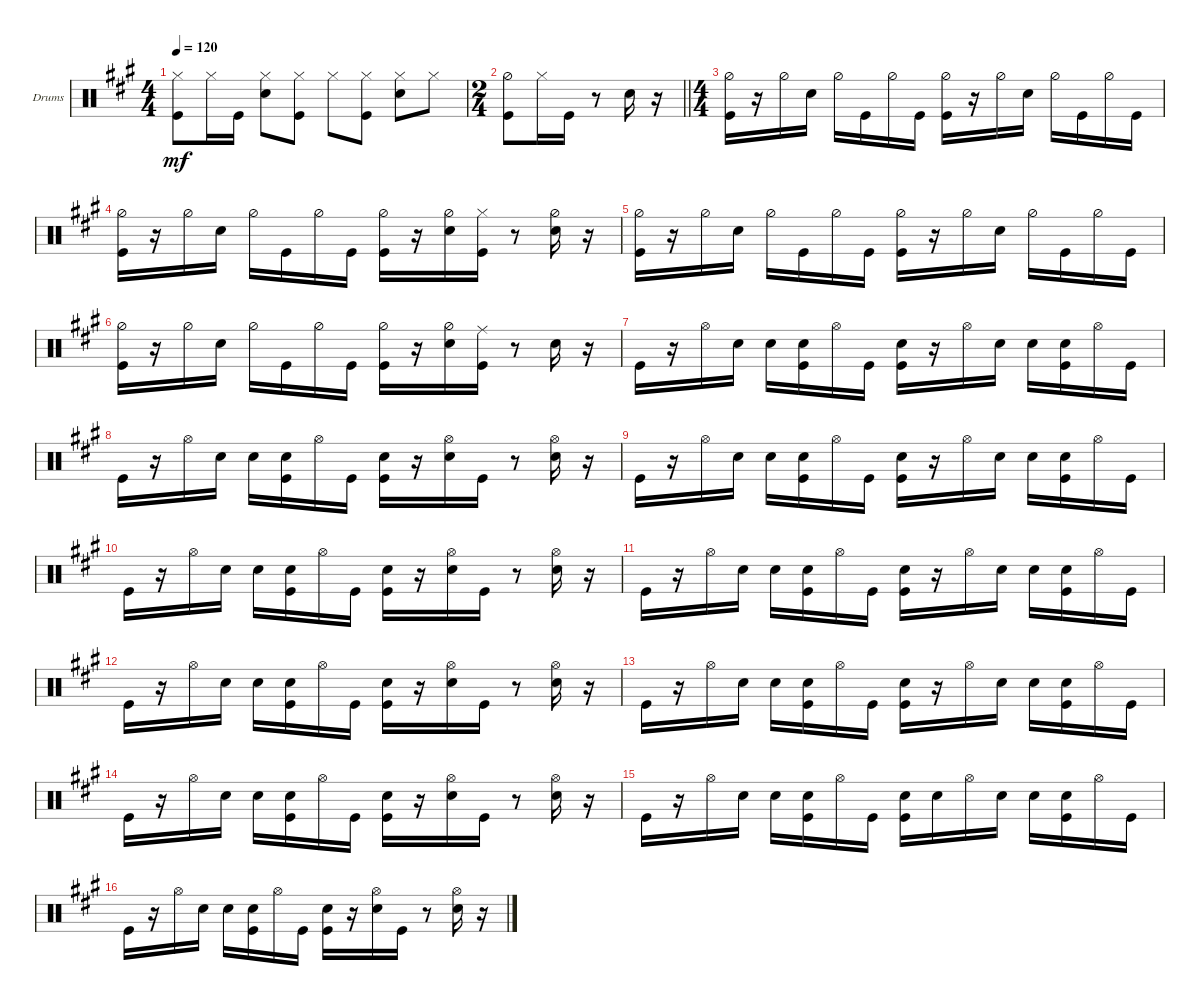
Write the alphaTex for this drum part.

\bracketExtendMode groupsimilarinstruments
\firstSystemTrackNameOrientation horizontal
\otherSystemsTrackNameOrientation horizontal
\track ("Drumkit" "Drums") {instrument percussion}
\staff {score}
\articulation defaults
\ts (4 4)
\tempo 120
\clef neutral
\ks a
("Kick (hit)" "Hi-Hat (closed)").8{dy mf} "Hi-Hat (closed)".16 "Kick (hit)".16 ("Snare (hit) 2" "Hi-Hat (closed)").8 ("Kick (hit)" "Hi-Hat (closed)").8 "Hi-Hat (closed)".8 ("Hi-Hat (closed)" "Kick (hit)").8 ("Hi-Hat (closed)" "Snare (hit) 2").8 "Hi-Hat (closed)".8 |
\ts (2 4)
\beaming (8 2 2 2 2)
\barLineRight lightlight
("Kick (hit)" "Hi-Hat (half)").8 "Hi-Hat (closed)".16 "Kick (hit)".16 r.8 "Snare (hit) 2".16 r.16 |
\ts (4 4)
\beaming (8 2 2 2 2)
("Hi-Hat (half)" "Kick (hit)").16 r.16 "Hi-Hat (half)".16 "Snare (hit) 2".16 "Hi-Hat (half)".16 "Kick (hit)".16 "Hi-Hat (half)".16 "Kick (hit)".16 ("Hi-Hat (half)" "Kick (hit)").16 r.16 "Hi-Hat (half)".16 "Snare (hit) 2".16 "Hi-Hat (half)".16 "Kick (hit)".16 "Hi-Hat (half)".16 "Kick (hit)".16 |
("Hi-Hat (half)" "Kick (hit)").16 r.16 "Hi-Hat (half)".16 "Snare (hit) 2".16 "Hi-Hat (half)".16 "Kick (hit)".16 "Hi-Hat (half)".16 "Kick (hit)".16 ("Hi-Hat (half)" "Kick (hit)").16 r.16 ("Snare (hit) 2" "Hi-Hat (half)").16 ("Kick (hit)" "Hi-Hat (closed)").16 r.8 ("Snare (hit) 2" "Hi-Hat (half)").16 r.16 |
("Hi-Hat (half)" "Kick (hit)").16 r.16 "Hi-Hat (half)".16 "Snare (hit) 2".16 "Hi-Hat (half)".16 "Kick (hit)".16 "Hi-Hat (half)".16 "Kick (hit)".16 ("Hi-Hat (half)" "Kick (hit)").16 r.16 "Hi-Hat (half)".16 "Snare (hit) 2".16 "Hi-Hat (half)".16 "Kick (hit)".16 "Hi-Hat (half)".16 "Kick (hit)".16 |
("Hi-Hat (half)" "Kick (hit)").16 r.16 "Hi-Hat (half)".16 "Snare (hit) 2".16 "Hi-Hat (half)".16 "Kick (hit)".16 "Hi-Hat (half)".16 "Kick (hit)".16 ("Hi-Hat (half)" "Kick (hit)").16 r.16 ("Snare (hit) 2" "Hi-Hat (half)").16 ("Kick (hit)" "Ride (middle)").16 r.8 "Snare (hit) 2".16 r.16 |
"Kick (hit)".16 r.16 "Hi-Hat (open)".16 "Snare (hit) 2".16 "Snare (hit) 2".16 ("Kick (hit)" "Snare (hit) 2").16 "Hi-Hat (open)".16 "Kick (hit)".16 ("Kick (hit)" "Snare (hit) 2").16 r.16 "Hi-Hat (open)".16 "Snare (hit) 2".16 "Snare (hit) 2".16 ("Kick (hit)" "Snare (hit) 2").16 "Hi-Hat (open)".16 "Kick (hit)".16 |
"Kick (hit)".16 r.16 "Hi-Hat (open)".16 "Snare (hit) 2".16 "Snare (hit) 2".16 ("Kick (hit)" "Snare (hit) 2").16 "Hi-Hat (open)".16 "Kick (hit)".16 ("Kick (hit)" "Snare (hit) 2").16 r.16 ("Snare (hit) 2" "Hi-Hat (open)").16 "Kick (hit)".16 r.8 ("Snare (hit) 2" "Hi-Hat (open)").16 r.16 |
"Kick (hit)".16 r.16 "Hi-Hat (open)".16 "Snare (hit) 2".16 "Snare (hit) 2".16 ("Kick (hit)" "Snare (hit) 2").16 "Hi-Hat (open)".16 "Kick (hit)".16 ("Kick (hit)" "Snare (hit) 2").16 r.16 "Hi-Hat (open)".16 "Snare (hit) 2".16 "Snare (hit) 2".16 ("Kick (hit)" "Snare (hit) 2").16 "Hi-Hat (open)".16 "Kick (hit)".16 |
"Kick (hit)".16 r.16 "Hi-Hat (open)".16 "Snare (hit) 2".16 "Snare (hit) 2".16 ("Kick (hit)" "Snare (hit) 2").16 "Hi-Hat (open)".16 "Kick (hit)".16 ("Kick (hit)" "Snare (hit) 2").16 r.16 ("Snare (hit) 2" "Hi-Hat (open)").16 "Kick (hit)".16 r.8 ("Snare (hit) 2" "Hi-Hat (open)").16 r.16 |
"Kick (hit)".16 r.16 "Hi-Hat (open)".16 "Snare (hit) 2".16 "Snare (hit) 2".16 ("Kick (hit)" "Snare (hit) 2").16 "Hi-Hat (open)".16 "Kick (hit)".16 ("Kick (hit)" "Snare (hit) 2").16 r.16 "Hi-Hat (open)".16 "Snare (hit) 2".16 "Snare (hit) 2".16 ("Kick (hit)" "Snare (hit) 2").16 "Hi-Hat (open)".16 "Kick (hit)".16 |
"Kick (hit)".16 r.16 "Hi-Hat (open)".16 "Snare (hit) 2".16 "Snare (hit) 2".16 ("Kick (hit)" "Snare (hit) 2").16 "Hi-Hat (open)".16 "Kick (hit)".16 ("Kick (hit)" "Snare (hit) 2").16 r.16 ("Snare (hit) 2" "Hi-Hat (open)").16 "Kick (hit)".16 r.8 ("Snare (hit) 2" "Hi-Hat (open)").16 r.16 |
"Kick (hit)".16 r.16 "Hi-Hat (open)".16 "Snare (hit) 2".16 "Snare (hit) 2".16 ("Kick (hit)" "Snare (hit) 2").16 "Hi-Hat (open)".16 "Kick (hit)".16 ("Kick (hit)" "Snare (hit) 2").16 r.16 "Hi-Hat (open)".16 "Snare (hit) 2".16 "Snare (hit) 2".16 ("Kick (hit)" "Snare (hit) 2").16 "Hi-Hat (open)".16 "Kick (hit)".16 |
"Kick (hit)".16 r.16 "Hi-Hat (open)".16 "Snare (hit) 2".16 "Snare (hit) 2".16 ("Kick (hit)" "Snare (hit) 2").16 "Hi-Hat (open)".16 "Kick (hit)".16 ("Kick (hit)" "Snare (hit) 2").16 r.16 ("Snare (hit) 2" "Hi-Hat (open)").16 "Kick (hit)".16 r.8 ("Snare (hit) 2" "Hi-Hat (open)").16 r.16 |
"Kick (hit)".16 r.16 "Hi-Hat (open)".16 "Snare (hit) 2".16 "Snare (hit) 2".16 ("Kick (hit)" "Snare (hit) 2").16 "Hi-Hat (open)".16 "Kick (hit)".16 ("Kick (hit)" "Snare (hit) 2").16 "Snare (hit) 2".16 "Hi-Hat (open)".16 "Snare (hit) 2".16 "Snare (hit) 2".16 ("Kick (hit)" "Snare (hit) 2").16 "Hi-Hat (open)".16 "Kick (hit)".16 |
"Kick (hit)".16 r.16 "Hi-Hat (open)".16 "Snare (hit) 2".16 "Snare (hit) 2".16 ("Kick (hit)" "Snare (hit) 2").16 "Hi-Hat (open)".16 "Kick (hit)".16 ("Kick (hit)" "Snare (hit) 2").16 r.16 ("Snare (hit) 2" "Hi-Hat (open)").16 "Kick (hit)".16 r.8 ("Snare (hit) 2" "Hi-Hat (open)").16 r.16
